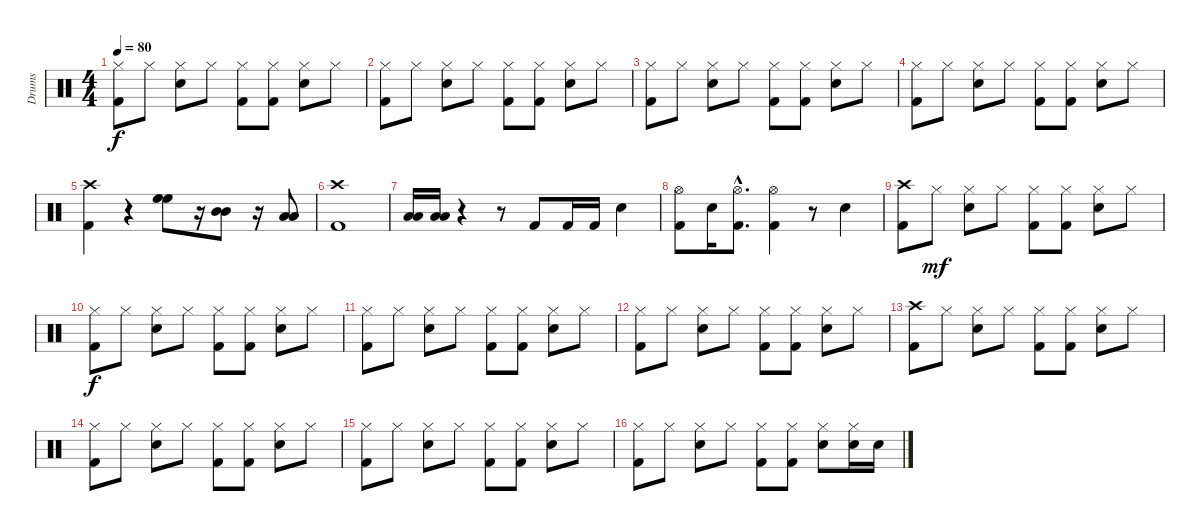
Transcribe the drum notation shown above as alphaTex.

\track ("Drums" "Drums") {instrument percussion}
\staff {score}
\articulation defaults
\ts (4 4)
\tempo 80
\clef neutral
\ks c
("Hi-Hat (closed)" "Kick (hit) 2").8{dy f} "Hi-Hat (closed)".8 ("Hi-Hat (closed)" "Snare (hit) 2").8 "Hi-Hat (closed)".8 ("Hi-Hat (closed)" "Kick (hit) 2").8 ("Hi-Hat (closed)" "Kick (hit) 2").8 ("Hi-Hat (closed)" "Snare (hit) 2").8 "Hi-Hat (closed)".8 |
("Hi-Hat (closed)" "Kick (hit) 2").8 "Hi-Hat (closed)".8 ("Hi-Hat (closed)" "Snare (hit) 2").8 "Hi-Hat (closed)".8 ("Hi-Hat (closed)" "Kick (hit) 2").8 ("Hi-Hat (closed)" "Kick (hit) 2").8 ("Hi-Hat (closed)" "Snare (hit) 2").8 "Hi-Hat (closed)".8 |
("Hi-Hat (closed)" "Kick (hit) 2").8 "Hi-Hat (closed)".8 ("Hi-Hat (closed)" "Snare (hit) 2").8 "Hi-Hat (closed)".8 ("Hi-Hat (closed)" "Kick (hit) 2").8 ("Hi-Hat (closed)" "Kick (hit) 2").8 ("Hi-Hat (closed)" "Snare (hit) 2").8 "Hi-Hat (closed)".8 |
("Hi-Hat (closed)" "Kick (hit) 2").8 "Hi-Hat (closed)".8 ("Hi-Hat (closed)" "Snare (hit) 2").8 "Hi-Hat (closed)".8 ("Hi-Hat (closed)" "Kick (hit) 2").8 ("Hi-Hat (closed)" "Kick (hit) 2").8 ("Hi-Hat (closed)" "Snare (hit) 2").8 "Hi-Hat (closed)".8 |
("Crash high (hit)" "Kick (hit) 2").4 r.4 ("High Floor Tom (hit)" "High Floor Tom (hit)").8 r.16 ("Mid Tom (hit)" "Mid Tom (hit)").8 r.16 ("Low Tom (hit)" "Low Tom (hit)").8 |
("Crash high (hit)" "Kick (hit) 2").1 |
("Low Floor Tom (hit)" "Low Floor Tom (hit)").16 ("Low Floor Tom (hit)" "Low Floor Tom (hit)").16 r.4 r.8 "Kick (hit) 2".8 "Kick (hit) 2".16 "Kick (hit) 2".16 "Snare (hit) 2".4 |
("Hi-Hat (open)" "Kick (hit) 2").8 "Snare (hit) 2".16 ("Hi-Hat (open)"{hac} "Kick (hit) 2"{hac}).8{d} ("Hi-Hat (open)" "Kick (hit) 2").4 r.8 "Snare (hit) 2".4 |
("Crash high (hit)" "Kick (hit) 2").8 "Hi-Hat (closed)".8{dy mf} ("Hi-Hat (closed)" "Snare (hit) 2").8 "Hi-Hat (closed)".8 ("Hi-Hat (closed)" "Kick (hit) 2").8 ("Hi-Hat (closed)" "Kick (hit) 2").8 ("Hi-Hat (closed)" "Snare (hit) 2").8 "Hi-Hat (closed)".8 |
("Hi-Hat (closed)" "Kick (hit) 2").8{dy f} "Hi-Hat (closed)".8 ("Hi-Hat (closed)" "Snare (hit) 2").8 "Hi-Hat (closed)".8 ("Hi-Hat (closed)" "Kick (hit) 2").8 ("Hi-Hat (closed)" "Kick (hit) 2").8 ("Hi-Hat (closed)" "Snare (hit) 2").8 "Hi-Hat (closed)".8 |
("Hi-Hat (closed)" "Kick (hit) 2").8 "Hi-Hat (closed)".8 ("Hi-Hat (closed)" "Snare (hit) 2").8 "Hi-Hat (closed)".8 ("Hi-Hat (closed)" "Kick (hit) 2").8 ("Hi-Hat (closed)" "Kick (hit) 2").8 ("Hi-Hat (closed)" "Snare (hit) 2").8 "Hi-Hat (closed)".8 |
("Hi-Hat (closed)" "Kick (hit) 2").8 "Hi-Hat (closed)".8 ("Hi-Hat (closed)" "Snare (hit) 2").8 "Hi-Hat (closed)".8 ("Hi-Hat (closed)" "Kick (hit) 2").8 ("Hi-Hat (closed)" "Kick (hit) 2").8 ("Hi-Hat (closed)" "Snare (hit) 2").8 "Hi-Hat (closed)".8 |
("Crash high (hit)" "Kick (hit) 2").8 "Hi-Hat (closed)".8 ("Hi-Hat (closed)" "Snare (hit) 2").8 "Hi-Hat (closed)".8 ("Hi-Hat (closed)" "Kick (hit) 2").8 ("Hi-Hat (closed)" "Kick (hit) 2").8 ("Hi-Hat (closed)" "Snare (hit) 2").8 "Hi-Hat (closed)".8 |
("Hi-Hat (closed)" "Kick (hit) 2").8 "Hi-Hat (closed)".8 ("Hi-Hat (closed)" "Snare (hit) 2").8 "Hi-Hat (closed)".8 ("Hi-Hat (closed)" "Kick (hit) 2").8 ("Hi-Hat (closed)" "Kick (hit) 2").8 ("Hi-Hat (closed)" "Snare (hit) 2").8 "Hi-Hat (closed)".8 |
("Hi-Hat (closed)" "Kick (hit) 2").8 "Hi-Hat (closed)".8 ("Hi-Hat (closed)" "Snare (hit) 2").8 "Hi-Hat (closed)".8 ("Hi-Hat (closed)" "Kick (hit) 2").8 ("Hi-Hat (closed)" "Kick (hit) 2").8 ("Hi-Hat (closed)" "Snare (hit) 2").8 "Hi-Hat (closed)".8 |
("Hi-Hat (closed)" "Kick (hit) 2").8 "Hi-Hat (closed)".8 ("Hi-Hat (closed)" "Snare (hit) 2").8 "Hi-Hat (closed)".8 ("Hi-Hat (closed)" "Kick (hit) 2").8 ("Hi-Hat (closed)" "Kick (hit) 2").8 ("Hi-Hat (closed)" "Snare (hit) 2").8 ("Hi-Hat (closed)" "Snare (hit) 2").16 "Snare (hit) 2".16
